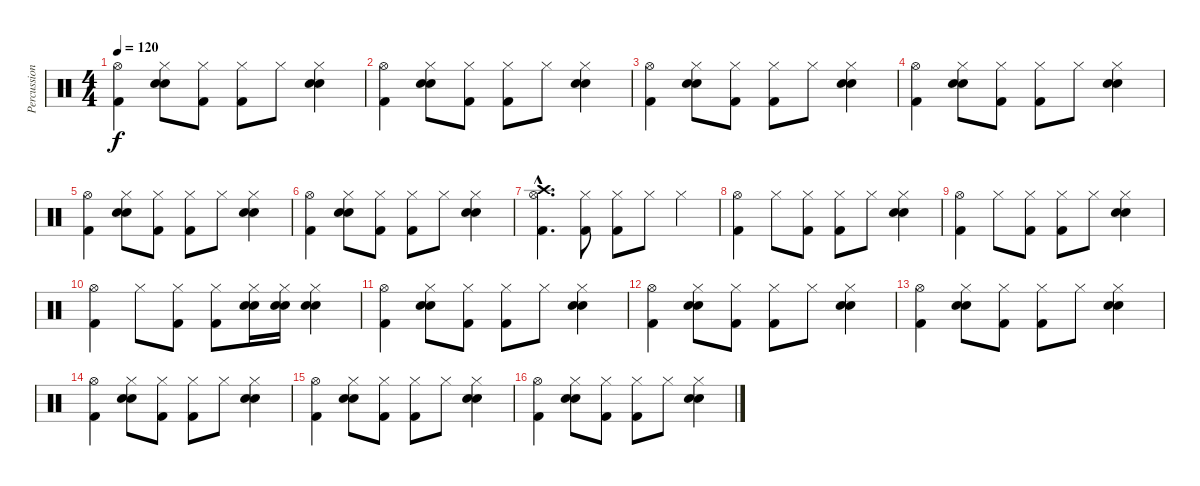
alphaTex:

\track ("Percussions" "Percussion") {instrument percussion}
\staff {score}
\articulation defaults
\ts (4 4)
\tempo 120
\clef neutral
\ks c
("Hi-Hat (open)" "Kick (hit) 2").4{dy f} ("Hi-Hat (closed)" "Electric Snare (hit)" "Snare (hit) 2").8 ("Hi-Hat (closed)" "Kick (hit) 2").8 ("Hi-Hat (closed)" "Kick (hit) 2").8 "Hi-Hat (closed)".8 ("Hi-Hat (closed)" "Electric Snare (hit)" "Snare (hit) 2").4 |
("Hi-Hat (open)" "Kick (hit) 2").4 ("Hi-Hat (closed)" "Electric Snare (hit)" "Snare (hit) 2").8 ("Hi-Hat (closed)" "Kick (hit) 2").8 ("Hi-Hat (closed)" "Kick (hit) 2").8 "Hi-Hat (closed)".8 ("Hi-Hat (closed)" "Electric Snare (hit)" "Snare (hit) 2").4 |
("Hi-Hat (open)" "Kick (hit) 2").4 ("Hi-Hat (closed)" "Electric Snare (hit)" "Snare (hit) 2").8 ("Hi-Hat (closed)" "Kick (hit) 2").8 ("Hi-Hat (closed)" "Kick (hit) 2").8 "Hi-Hat (closed)".8 ("Hi-Hat (closed)" "Electric Snare (hit)" "Snare (hit) 2").4 |
("Hi-Hat (open)" "Kick (hit) 2").4 ("Hi-Hat (closed)" "Electric Snare (hit)" "Snare (hit) 2").8 ("Hi-Hat (closed)" "Kick (hit) 2").8 ("Hi-Hat (closed)" "Kick (hit) 2").8 "Hi-Hat (closed)".8 ("Hi-Hat (closed)" "Electric Snare (hit)" "Snare (hit) 2").4 |
("Hi-Hat (open)" "Kick (hit) 2").4 ("Hi-Hat (closed)" "Electric Snare (hit)" "Snare (hit) 2").8 ("Hi-Hat (closed)" "Kick (hit) 2").8 ("Hi-Hat (closed)" "Kick (hit) 2").8 "Hi-Hat (closed)".8 ("Hi-Hat (closed)" "Electric Snare (hit)" "Snare (hit) 2").4 |
("Hi-Hat (open)" "Kick (hit) 2").4 ("Hi-Hat (closed)" "Electric Snare (hit)" "Snare (hit) 2").8 ("Hi-Hat (closed)" "Kick (hit) 2").8 ("Hi-Hat (closed)" "Kick (hit) 2").8 "Hi-Hat (closed)".8 ("Hi-Hat (closed)" "Electric Snare (hit)" "Snare (hit) 2").4 |
("Hi-Hat (open)"{hac} "Crash high (hit)"{hac} "Kick (hit) 2"{hac}).4{d} ("Hi-Hat (closed)" "Kick (hit) 2").8 ("Hi-Hat (closed)" "Kick (hit) 2").8 "Hi-Hat (closed)".8 "Hi-Hat (closed)".4 |
("Hi-Hat (open)" "Kick (hit) 2").4 "Hi-Hat (closed)".8 ("Hi-Hat (closed)" "Kick (hit) 2").8 ("Hi-Hat (closed)" "Kick (hit) 2").8 "Hi-Hat (closed)".8 ("Hi-Hat (closed)" "Electric Snare (hit)" "Snare (hit) 2").4 |
("Hi-Hat (open)" "Kick (hit) 2").4 "Hi-Hat (closed)".8 ("Hi-Hat (closed)" "Kick (hit) 2").8 ("Hi-Hat (closed)" "Kick (hit) 2").8 "Hi-Hat (closed)".8 ("Hi-Hat (closed)" "Electric Snare (hit)" "Snare (hit) 2").4 |
("Hi-Hat (open)" "Kick (hit) 2").4 "Hi-Hat (closed)".8 ("Hi-Hat (closed)" "Kick (hit) 2").8 ("Hi-Hat (closed)" "Kick (hit) 2").8 ("Hi-Hat (closed)" "Electric Snare (hit)" "Snare (hit) 2").16 ("Hi-Hat (closed)" "Electric Snare (hit)" "Snare (hit) 2").16 ("Hi-Hat (closed)" "Electric Snare (hit)" "Snare (hit) 2").4 |
("Hi-Hat (open)" "Kick (hit) 2").4 ("Hi-Hat (closed)" "Electric Snare (hit)" "Snare (hit) 2").8 ("Hi-Hat (closed)" "Kick (hit) 2").8 ("Hi-Hat (closed)" "Kick (hit) 2").8 "Hi-Hat (closed)".8 ("Hi-Hat (closed)" "Electric Snare (hit)" "Snare (hit) 2").4 |
("Hi-Hat (open)" "Kick (hit) 2").4 ("Hi-Hat (closed)" "Electric Snare (hit)" "Snare (hit) 2").8 ("Hi-Hat (closed)" "Kick (hit) 2").8 ("Hi-Hat (closed)" "Kick (hit) 2").8 "Hi-Hat (closed)".8 ("Hi-Hat (closed)" "Electric Snare (hit)" "Snare (hit) 2").4 |
("Hi-Hat (open)" "Kick (hit) 2").4 ("Hi-Hat (closed)" "Electric Snare (hit)" "Snare (hit) 2").8 ("Hi-Hat (closed)" "Kick (hit) 2").8 ("Hi-Hat (closed)" "Kick (hit) 2").8 "Hi-Hat (closed)".8 ("Hi-Hat (closed)" "Electric Snare (hit)" "Snare (hit) 2").4 |
("Hi-Hat (open)" "Kick (hit) 2").4 ("Hi-Hat (closed)" "Electric Snare (hit)" "Snare (hit) 2").8 ("Hi-Hat (closed)" "Kick (hit) 2").8 ("Hi-Hat (closed)" "Kick (hit) 2").8 "Hi-Hat (closed)".8 ("Hi-Hat (closed)" "Electric Snare (hit)" "Snare (hit) 2").4 |
("Hi-Hat (open)" "Kick (hit) 2").4 ("Hi-Hat (closed)" "Electric Snare (hit)" "Snare (hit) 2").8 ("Hi-Hat (closed)" "Kick (hit) 2").8 ("Hi-Hat (closed)" "Kick (hit) 2").8 "Hi-Hat (closed)".8 ("Hi-Hat (closed)" "Electric Snare (hit)" "Snare (hit) 2").4 |
("Hi-Hat (open)" "Kick (hit) 2").4 ("Hi-Hat (closed)" "Electric Snare (hit)" "Snare (hit) 2").8 ("Hi-Hat (closed)" "Kick (hit) 2").8 ("Hi-Hat (closed)" "Kick (hit) 2").8 "Hi-Hat (closed)".8 ("Hi-Hat (closed)" "Electric Snare (hit)" "Snare (hit) 2").4
